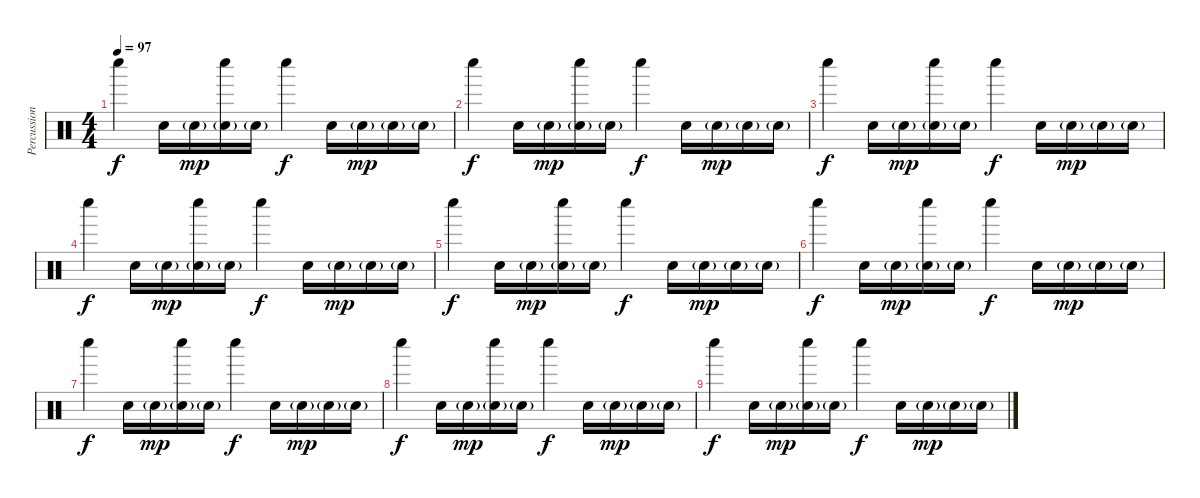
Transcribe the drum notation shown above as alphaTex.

\track ("Percussion" "Percussion") {instrument percussion}
\staff {score}
\articulation defaults
\ts (4 4)
\tempo 97
\clef neutral
\ks c "Whistle low (hit)".4{dy f} "Electric Snare (hit)".16 "Electric Snare (hit)"{g}.16{dy mp}
("Whistle low (hit)" "Electric Snare (hit)"{g}).16 "Electric Snare (hit)"{g}.16 "Whistle low (hit)".4{dy f} "Electric Snare (hit)".16 "Electric Snare (hit)"{g}.16{dy mp} "Electric Snare (hit)"{g}.16 "Electric Snare (hit)"{g}.16 |
"Whistle low (hit)".4{dy f} "Electric Snare (hit)".16 "Electric Snare (hit)"{g}.16{dy mp} ("Whistle low (hit)" "Electric Snare (hit)"{g}).16 "Electric Snare (hit)"{g}.16 "Whistle low (hit)".4{dy f} "Electric Snare (hit)".16 "Electric Snare (hit)"{g}.16{dy mp} "Electric Snare (hit)"{g}.16 "Electric Snare (hit)"{g}.16 |
"Whistle low (hit)".4{dy f} "Electric Snare (hit)".16 "Electric Snare (hit)"{g}.16{dy mp} ("Whistle low (hit)" "Electric Snare (hit)"{g}).16 "Electric Snare (hit)"{g}.16 "Whistle low (hit)".4{dy f} "Electric Snare (hit)".16 "Electric Snare (hit)"{g}.16{dy mp} "Electric Snare (hit)"{g}.16 "Electric Snare (hit)"{g}.16 |
"Whistle low (hit)".4{dy f} "Electric Snare (hit)".16 "Electric Snare (hit)"{g}.16{dy mp} ("Whistle low (hit)" "Electric Snare (hit)"{g}).16 "Electric Snare (hit)"{g}.16 "Whistle low (hit)".4{dy f} "Electric Snare (hit)".16 "Electric Snare (hit)"{g}.16{dy mp} "Electric Snare (hit)"{g}.16 "Electric Snare (hit)"{g}.16 |
"Whistle low (hit)".4{dy f} "Electric Snare (hit)".16 "Electric Snare (hit)"{g}.16{dy mp} ("Whistle low (hit)" "Electric Snare (hit)"{g}).16 "Electric Snare (hit)"{g}.16 "Whistle low (hit)".4{dy f} "Electric Snare (hit)".16 "Electric Snare (hit)"{g}.16{dy mp} "Electric Snare (hit)"{g}.16 "Electric Snare (hit)"{g}.16 |
"Whistle low (hit)".4{dy f} "Electric Snare (hit)".16 "Electric Snare (hit)"{g}.16{dy mp} ("Whistle low (hit)" "Electric Snare (hit)"{g}).16 "Electric Snare (hit)"{g}.16 "Whistle low (hit)".4{dy f} "Electric Snare (hit)".16 "Electric Snare (hit)"{g}.16{dy mp} "Electric Snare (hit)"{g}.16 "Electric Snare (hit)"{g}.16 |
"Whistle low (hit)".4{dy f} "Electric Snare (hit)".16 "Electric Snare (hit)"{g}.16{dy mp} ("Whistle low (hit)" "Electric Snare (hit)"{g}).16 "Electric Snare (hit)"{g}.16 "Whistle low (hit)".4{dy f} "Electric Snare (hit)".16 "Electric Snare (hit)"{g}.16{dy mp} "Electric Snare (hit)"{g}.16 "Electric Snare (hit)"{g}.16 |
"Whistle low (hit)".4{dy f} "Electric Snare (hit)".16 "Electric Snare (hit)"{g}.16{dy mp} ("Whistle low (hit)" "Electric Snare (hit)"{g}).16 "Electric Snare (hit)"{g}.16 "Whistle low (hit)".4{dy f} "Electric Snare (hit)".16 "Electric Snare (hit)"{g}.16{dy mp} "Electric Snare (hit)"{g}.16 "Electric Snare (hit)"{g}.16 |
"Whistle low (hit)".4{dy f} "Electric Snare (hit)".16 "Electric Snare (hit)"{g}.16{dy mp} ("Whistle low (hit)" "Electric Snare (hit)"{g}).16 "Electric Snare (hit)"{g}.16 "Whistle low (hit)".4{dy f} "Electric Snare (hit)".16 "Electric Snare (hit)"{g}.16{dy mp} "Electric Snare (hit)"{g}.16 "Electric Snare (hit)"{g}.16
